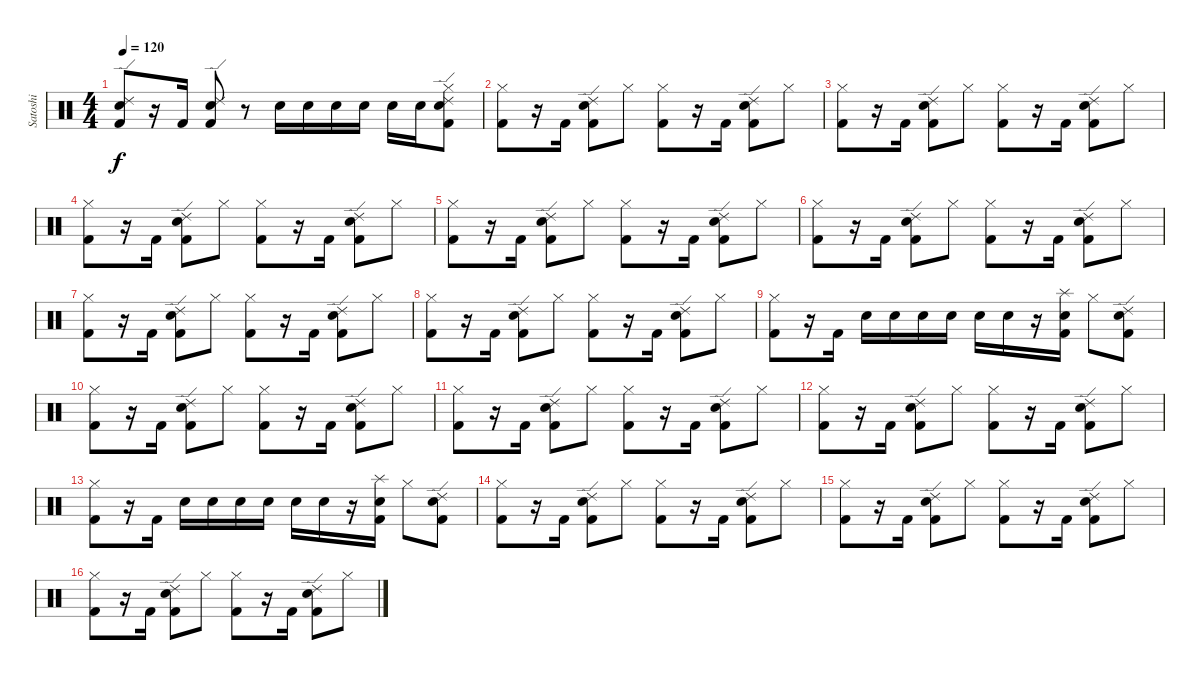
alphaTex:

\track ("Satoshi" "Satoshi") {instrument percussion}
\staff {score}
\articulation defaults
\ts (4 4)
\tempo 120
\clef neutral
\ks c
("Ride (edge) 2" "Electric Snare (hit)" "Kick (hit) 2").8{dy f} r.16 "Kick (hit) 2".16 ("Ride (edge) 2" "Electric Snare (hit)" "Kick (hit) 2").8 r.8 "Electric Snare (hit)".16 "Electric Snare (hit)".16 "Electric Snare (hit)".16 "Electric Snare (hit)".16 "Electric Snare (hit)".16 "Electric Snare (hit)".16 ("Ride (edge) 2" "Hi-Hat (closed)" "Electric Snare (hit)" "Kick (hit) 2").8 |
("Hi-Hat (closed)" "Kick (hit) 2").8 r.16 "Kick (hit) 2".16 ("Ride (edge) 2" "Electric Snare (hit)" "Kick (hit) 2").8 "Hi-Hat (closed)".8 ("Hi-Hat (closed)" "Kick (hit) 2").8 r.16 "Kick (hit) 2".16 ("Ride (edge) 2" "Electric Snare (hit)" "Kick (hit) 2").8 "Hi-Hat (closed)".8 |
("Hi-Hat (closed)" "Kick (hit) 2").8 r.16 "Kick (hit) 2".16 ("Ride (edge) 2" "Electric Snare (hit)" "Kick (hit) 2").8 "Hi-Hat (closed)".8 ("Hi-Hat (closed)" "Kick (hit) 2").8 r.16 "Kick (hit) 2".16 ("Ride (edge) 2" "Electric Snare (hit)" "Kick (hit) 2").8 "Hi-Hat (closed)".8 |
("Hi-Hat (closed)" "Kick (hit) 2").8 r.16 "Kick (hit) 2".16 ("Ride (edge) 2" "Electric Snare (hit)" "Kick (hit) 2").8 "Hi-Hat (closed)".8 ("Hi-Hat (closed)" "Kick (hit) 2").8 r.16 "Kick (hit) 2".16 ("Ride (edge) 2" "Electric Snare (hit)" "Kick (hit) 2").8 "Hi-Hat (closed)".8 |
("Hi-Hat (closed)" "Kick (hit) 2").8 r.16 "Kick (hit) 2".16 ("Ride (edge) 2" "Electric Snare (hit)" "Kick (hit) 2").8 "Hi-Hat (closed)".8 ("Hi-Hat (closed)" "Kick (hit) 2").8 r.16 "Kick (hit) 2".16 ("Ride (edge) 2" "Electric Snare (hit)" "Kick (hit) 2").8 "Hi-Hat (closed)".8 |
("Hi-Hat (closed)" "Kick (hit) 2").8 r.16 "Kick (hit) 2".16 ("Ride (edge) 2" "Electric Snare (hit)" "Kick (hit) 2").8 "Hi-Hat (closed)".8 ("Hi-Hat (closed)" "Kick (hit) 2").8 r.16 "Kick (hit) 2".16 ("Ride (edge) 2" "Electric Snare (hit)" "Kick (hit) 2").8 "Hi-Hat (closed)".8 |
("Hi-Hat (closed)" "Kick (hit) 2").8 r.16 "Kick (hit) 2".16 ("Ride (edge) 2" "Electric Snare (hit)" "Kick (hit) 2").8 "Hi-Hat (closed)".8 ("Hi-Hat (closed)" "Kick (hit) 2").8 r.16 "Kick (hit) 2".16 ("Ride (edge) 2" "Electric Snare (hit)" "Kick (hit) 2").8 "Hi-Hat (closed)".8 |
("Hi-Hat (closed)" "Kick (hit) 2").8 r.16 "Kick (hit) 2".16 ("Ride (edge) 2" "Electric Snare (hit)" "Kick (hit) 2").8 "Hi-Hat (closed)".8 ("Hi-Hat (closed)" "Kick (hit) 2").8 r.16 "Kick (hit) 2".16 ("Ride (edge) 2" "Electric Snare (hit)" "Kick (hit) 2").8 "Hi-Hat (closed)".8 |
("Hi-Hat (closed)" "Kick (hit) 2").8 r.16 "Kick (hit) 2".16 "Electric Snare (hit)".16 "Electric Snare (hit)".16 "Electric Snare (hit)".16 "Electric Snare (hit)".16 "Electric Snare (hit)".16 "Electric Snare (hit)".16 r.16 ("Splash (hit)" "Electric Snare (hit)" "Kick (hit) 2").16 "Hi-Hat (closed)".8 ("Ride (edge) 2" "Electric Snare (hit)" "Kick (hit) 2").8 |
("Hi-Hat (closed)" "Kick (hit) 2").8 r.16 "Kick (hit) 2".16 ("Ride (edge) 2" "Electric Snare (hit)" "Kick (hit) 2").8 "Hi-Hat (closed)".8 ("Hi-Hat (closed)" "Kick (hit) 2").8 r.16 "Kick (hit) 2".16 ("Ride (edge) 2" "Electric Snare (hit)" "Kick (hit) 2").8 "Hi-Hat (closed)".8 |
("Hi-Hat (closed)" "Kick (hit) 2").8 r.16 "Kick (hit) 2".16 ("Ride (edge) 2" "Electric Snare (hit)" "Kick (hit) 2").8 "Hi-Hat (closed)".8 ("Hi-Hat (closed)" "Kick (hit) 2").8 r.16 "Kick (hit) 2".16 ("Ride (edge) 2" "Electric Snare (hit)" "Kick (hit) 2").8 "Hi-Hat (closed)".8 |
("Hi-Hat (closed)" "Kick (hit) 2").8 r.16 "Kick (hit) 2".16 ("Ride (edge) 2" "Electric Snare (hit)" "Kick (hit) 2").8 "Hi-Hat (closed)".8 ("Hi-Hat (closed)" "Kick (hit) 2").8 r.16 "Kick (hit) 2".16 ("Ride (edge) 2" "Electric Snare (hit)" "Kick (hit) 2").8 "Hi-Hat (closed)".8 |
("Hi-Hat (closed)" "Kick (hit) 2").8 r.16 "Kick (hit) 2".16 "Electric Snare (hit)".16 "Electric Snare (hit)".16 "Electric Snare (hit)".16 "Electric Snare (hit)".16 "Electric Snare (hit)".16 "Electric Snare (hit)".16 r.16 ("Splash (hit)" "Electric Snare (hit)" "Kick (hit) 2").16 "Hi-Hat (closed)".8 ("Ride (edge) 2" "Electric Snare (hit)" "Kick (hit) 2").8 |
("Hi-Hat (closed)" "Kick (hit) 2").8 r.16 "Kick (hit) 2".16 ("Ride (edge) 2" "Electric Snare (hit)" "Kick (hit) 2").8 "Hi-Hat (closed)".8 ("Hi-Hat (closed)" "Kick (hit) 2").8 r.16 "Kick (hit) 2".16 ("Ride (edge) 2" "Electric Snare (hit)" "Kick (hit) 2").8 "Hi-Hat (closed)".8 |
("Hi-Hat (closed)" "Kick (hit) 2").8 r.16 "Kick (hit) 2".16 ("Ride (edge) 2" "Electric Snare (hit)" "Kick (hit) 2").8 "Hi-Hat (closed)".8 ("Hi-Hat (closed)" "Kick (hit) 2").8 r.16 "Kick (hit) 2".16 ("Ride (edge) 2" "Electric Snare (hit)" "Kick (hit) 2").8 "Hi-Hat (closed)".8 |
("Hi-Hat (closed)" "Kick (hit) 2").8 r.16 "Kick (hit) 2".16 ("Ride (edge) 2" "Electric Snare (hit)" "Kick (hit) 2").8 "Hi-Hat (closed)".8 ("Hi-Hat (closed)" "Kick (hit) 2").8 r.16 "Kick (hit) 2".16 ("Ride (edge) 2" "Electric Snare (hit)" "Kick (hit) 2").8 "Hi-Hat (closed)".8
